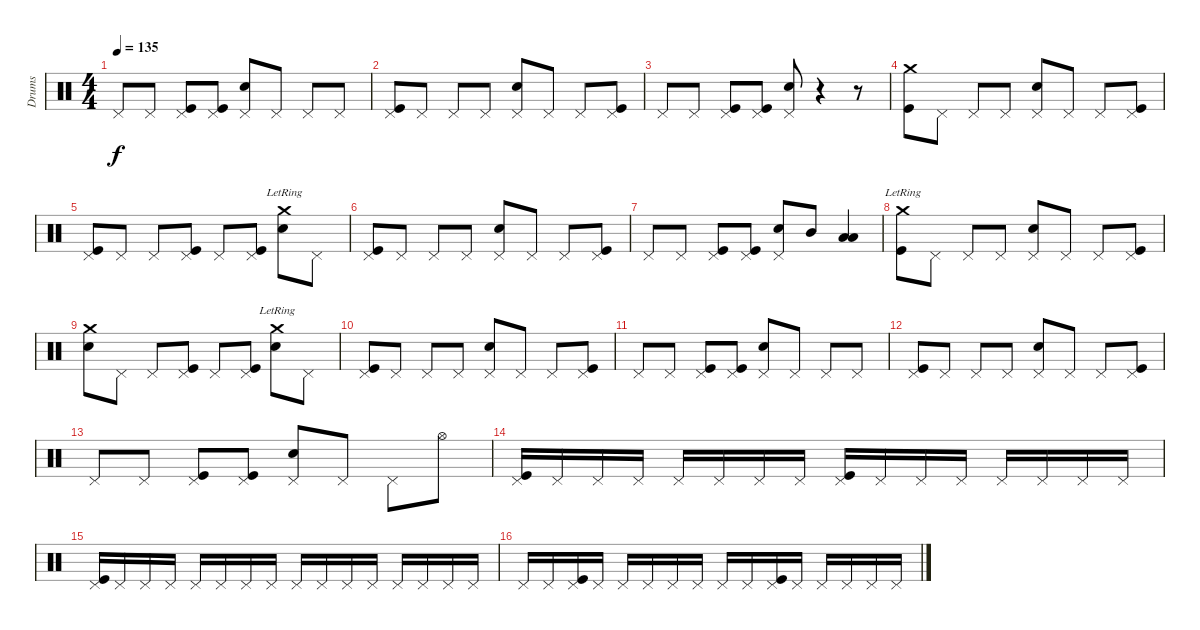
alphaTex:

\track ("Drums" "Drums") {instrument percussion}
\staff {score}
\articulation defaults
\ts (4 4)
\tempo 135
\clef neutral
\ks c "Pedal Hi-Hat (hit)".8{dy f} "Pedal Hi-Hat (hit)".8
("Pedal Hi-Hat (hit)" "Kick (hit)").8 ("Pedal Hi-Hat (hit)" "Kick (hit)").8 ("Pedal Hi-Hat (hit)" "Snare (hit) 2").8 "Pedal Hi-Hat (hit)".8 "Pedal Hi-Hat (hit)".8 "Pedal Hi-Hat (hit)".8 |
("Pedal Hi-Hat (hit)" "Kick (hit)").8 "Pedal Hi-Hat (hit)".8 "Pedal Hi-Hat (hit)".8 "Pedal Hi-Hat (hit)".8 ("Pedal Hi-Hat (hit)" "Snare (hit) 2").8 "Pedal Hi-Hat (hit)".8 "Pedal Hi-Hat (hit)".8 ("Pedal Hi-Hat (hit)" "Kick (hit)").8 |
"Pedal Hi-Hat (hit)".8 "Pedal Hi-Hat (hit)".8 ("Pedal Hi-Hat (hit)" "Kick (hit)").8 ("Pedal Hi-Hat (hit)" "Kick (hit)").8 ("Pedal Hi-Hat (hit)" "Snare (hit) 2").8 r.4 r.8 |
("Crash medium (hit)" "Kick (hit)").8 "Pedal Hi-Hat (hit)".8 "Pedal Hi-Hat (hit)".8 "Pedal Hi-Hat (hit)".8 ("Pedal Hi-Hat (hit)" "Snare (hit) 2").8 "Pedal Hi-Hat (hit)".8 "Pedal Hi-Hat (hit)".8 ("Pedal Hi-Hat (hit)" "Kick (hit)").8 |
("Pedal Hi-Hat (hit)" "Kick (hit)").8 "Pedal Hi-Hat (hit)".8 "Pedal Hi-Hat (hit)".8 ("Pedal Hi-Hat (hit)" "Kick (hit)").8 "Pedal Hi-Hat (hit)".8 ("Pedal Hi-Hat (hit)" "Kick (hit)").8 ("Crash medium (hit)"{lr} "Snare (hit) 2").8 "Pedal Hi-Hat (hit)".8 |
("Pedal Hi-Hat (hit)" "Kick (hit)").8 "Pedal Hi-Hat (hit)".8 "Pedal Hi-Hat (hit)".8 "Pedal Hi-Hat (hit)".8 ("Pedal Hi-Hat (hit)" "Snare (hit) 2").8 "Pedal Hi-Hat (hit)".8 "Pedal Hi-Hat (hit)".8 ("Pedal Hi-Hat (hit)" "Kick (hit)").8 |
"Pedal Hi-Hat (hit)".8 "Pedal Hi-Hat (hit)".8 ("Pedal Hi-Hat (hit)" "Kick (hit)").8 ("Pedal Hi-Hat (hit)" "Kick (hit)").8 ("Pedal Hi-Hat (hit)" "Snare (hit) 2").8 "Mid Tom (hit)".8 ("Low Tom (hit)" "Low Tom (hit)").4{bd 60} |
("Crash medium (hit)"{lr} "Kick (hit)").8 "Pedal Hi-Hat (hit)".8 "Pedal Hi-Hat (hit)".8 "Pedal Hi-Hat (hit)".8 ("Pedal Hi-Hat (hit)" "Snare (hit) 2").8 "Pedal Hi-Hat (hit)".8 "Pedal Hi-Hat (hit)".8 ("Pedal Hi-Hat (hit)" "Kick (hit)").8 |
("Crash medium (hit)" "Snare (hit) 2").8 "Pedal Hi-Hat (hit)".8 "Pedal Hi-Hat (hit)".8 ("Pedal Hi-Hat (hit)" "Kick (hit)").8 "Pedal Hi-Hat (hit)".8 ("Pedal Hi-Hat (hit)" "Kick (hit)").8 ("Crash medium (hit)"{lr} "Snare (hit) 2").8 "Pedal Hi-Hat (hit)".8 |
("Pedal Hi-Hat (hit)" "Kick (hit)").8 "Pedal Hi-Hat (hit)".8 "Pedal Hi-Hat (hit)".8 "Pedal Hi-Hat (hit)".8 ("Pedal Hi-Hat (hit)" "Snare (hit) 2").8 "Pedal Hi-Hat (hit)".8 "Pedal Hi-Hat (hit)".8 ("Pedal Hi-Hat (hit)" "Kick (hit)").8 |
"Pedal Hi-Hat (hit)".8 "Pedal Hi-Hat (hit)".8 ("Pedal Hi-Hat (hit)" "Kick (hit)").8 ("Pedal Hi-Hat (hit)" "Kick (hit)").8 ("Pedal Hi-Hat (hit)" "Snare (hit) 2").8 "Pedal Hi-Hat (hit)".8 "Pedal Hi-Hat (hit)".8 "Pedal Hi-Hat (hit)".8 |
("Pedal Hi-Hat (hit)" "Kick (hit)").8 "Pedal Hi-Hat (hit)".8 "Pedal Hi-Hat (hit)".8 "Pedal Hi-Hat (hit)".8 ("Pedal Hi-Hat (hit)" "Snare (hit) 2").8 "Pedal Hi-Hat (hit)".8 "Pedal Hi-Hat (hit)".8 ("Pedal Hi-Hat (hit)" "Kick (hit)").8 |
"Pedal Hi-Hat (hit)".8 "Pedal Hi-Hat (hit)".8 ("Pedal Hi-Hat (hit)" "Kick (hit)").8 ("Pedal Hi-Hat (hit)" "Kick (hit)").8 ("Pedal Hi-Hat (hit)" "Snare (hit) 2").8 "Pedal Hi-Hat (hit)".8 "Pedal Hi-Hat (hit)".8 "Hi-Hat (open)".8 |
("Pedal Hi-Hat (hit)" "Kick (hit)").16 "Pedal Hi-Hat (hit)".16 "Pedal Hi-Hat (hit)".16 "Pedal Hi-Hat (hit)".16 "Pedal Hi-Hat (hit)".16 "Pedal Hi-Hat (hit)".16 "Pedal Hi-Hat (hit)".16 "Pedal Hi-Hat (hit)".16 ("Pedal Hi-Hat (hit)" "Kick (hit)").16 "Pedal Hi-Hat (hit)".16 "Pedal Hi-Hat (hit)".16 "Pedal Hi-Hat (hit)".16 "Pedal Hi-Hat (hit)".16 "Pedal Hi-Hat (hit)".16 "Pedal Hi-Hat (hit)".16 "Pedal Hi-Hat (hit)".16 |
("Pedal Hi-Hat (hit)" "Kick (hit)").16 "Pedal Hi-Hat (hit)".16 "Pedal Hi-Hat (hit)".16 "Pedal Hi-Hat (hit)".16 "Pedal Hi-Hat (hit)".16 "Pedal Hi-Hat (hit)".16 "Pedal Hi-Hat (hit)".16 "Pedal Hi-Hat (hit)".16 "Pedal Hi-Hat (hit)".16 "Pedal Hi-Hat (hit)".16 "Pedal Hi-Hat (hit)".16 "Pedal Hi-Hat (hit)".16 "Pedal Hi-Hat (hit)".16 "Pedal Hi-Hat (hit)".16 "Pedal Hi-Hat (hit)".16 "Pedal Hi-Hat (hit)".16 |
"Pedal Hi-Hat (hit)".16 "Pedal Hi-Hat (hit)".16 ("Pedal Hi-Hat (hit)" "Kick (hit)").16 "Pedal Hi-Hat (hit)".16 "Pedal Hi-Hat (hit)".16 "Pedal Hi-Hat (hit)".16 "Pedal Hi-Hat (hit)".16 "Pedal Hi-Hat (hit)".16 "Pedal Hi-Hat (hit)".16 "Pedal Hi-Hat (hit)".16 ("Pedal Hi-Hat (hit)" "Kick (hit)").16 "Pedal Hi-Hat (hit)".16 "Pedal Hi-Hat (hit)".16 "Pedal Hi-Hat (hit)".16 "Pedal Hi-Hat (hit)".16 "Pedal Hi-Hat (hit)".16
